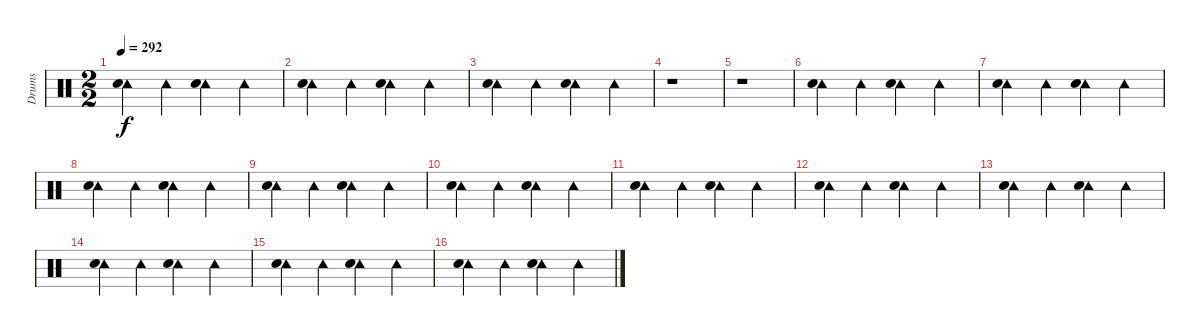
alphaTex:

\track ("Drums" "Drums") {instrument percussion}
\staff {score}
\articulation defaults
\ts (2 2)
\tempo 292
\clef neutral
\ks c
("Tambourine (hit)" "Electric Snare (hit)").4{dy f} "Tambourine (hit)".4 ("Tambourine (hit)" "Electric Snare (hit)").4 "Tambourine (hit)".4 |
("Tambourine (hit)" "Electric Snare (hit)").4 "Tambourine (hit)".4 ("Tambourine (hit)" "Electric Snare (hit)").4 "Tambourine (hit)".4 |
("Tambourine (hit)" "Electric Snare (hit)").4 "Tambourine (hit)".4 ("Tambourine (hit)" "Electric Snare (hit)").4 "Tambourine (hit)".4 |
r.1 |
r.1 |
("Tambourine (hit)" "Electric Snare (hit)").4 "Tambourine (hit)".4 ("Tambourine (hit)" "Electric Snare (hit)").4 "Tambourine (hit)".4 |
("Tambourine (hit)" "Electric Snare (hit)").4 "Tambourine (hit)".4 ("Tambourine (hit)" "Electric Snare (hit)").4 "Tambourine (hit)".4 |
("Tambourine (hit)" "Electric Snare (hit)").4 "Tambourine (hit)".4 ("Tambourine (hit)" "Electric Snare (hit)").4 "Tambourine (hit)".4 |
("Tambourine (hit)" "Electric Snare (hit)").4 "Tambourine (hit)".4 ("Tambourine (hit)" "Electric Snare (hit)").4 "Tambourine (hit)".4 |
("Tambourine (hit)" "Electric Snare (hit)").4 "Tambourine (hit)".4 ("Tambourine (hit)" "Electric Snare (hit)").4 "Tambourine (hit)".4 |
("Tambourine (hit)" "Electric Snare (hit)").4 "Tambourine (hit)".4 ("Tambourine (hit)" "Electric Snare (hit)").4 "Tambourine (hit)".4 |
("Tambourine (hit)" "Electric Snare (hit)").4 "Tambourine (hit)".4 ("Tambourine (hit)" "Electric Snare (hit)").4 "Tambourine (hit)".4 |
("Tambourine (hit)" "Electric Snare (hit)").4 "Tambourine (hit)".4 ("Tambourine (hit)" "Electric Snare (hit)").4 "Tambourine (hit)".4 |
("Tambourine (hit)" "Electric Snare (hit)").4 "Tambourine (hit)".4 ("Tambourine (hit)" "Electric Snare (hit)").4 "Tambourine (hit)".4 |
("Tambourine (hit)" "Electric Snare (hit)").4 "Tambourine (hit)".4 ("Tambourine (hit)" "Electric Snare (hit)").4 "Tambourine (hit)".4 |
("Tambourine (hit)" "Electric Snare (hit)").4 "Tambourine (hit)".4 ("Tambourine (hit)" "Electric Snare (hit)").4 "Tambourine (hit)".4
